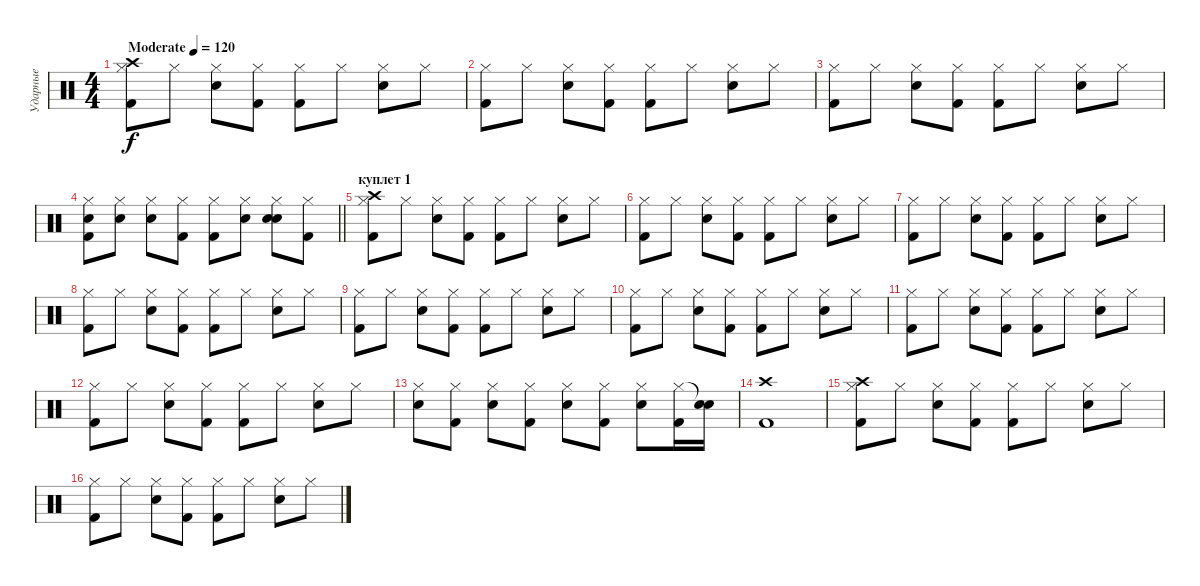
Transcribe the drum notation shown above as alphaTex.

\track ("Ударные" "Ударные") {instrument percussion}
\staff
\articulation defaults
\ts (4 4)
\tempo (120 "Moderate")
\clef neutral
\ks c
("Crash high (hit)" "Hi-Hat (closed)" "Kick (hit) 2").8{dy f} "Hi-Hat (closed)".8 ("Hi-Hat (closed)" "Snare (hit) 2").8 ("Hi-Hat (closed)" "Kick (hit) 2").8 ("Hi-Hat (closed)" "Kick (hit) 2").8 "Hi-Hat (closed)".8 ("Hi-Hat (closed)" "Snare (hit) 2").8 "Hi-Hat (closed)".8 |
("Hi-Hat (closed)" "Kick (hit) 2").8 "Hi-Hat (closed)".8 ("Hi-Hat (closed)" "Snare (hit) 2").8 ("Hi-Hat (closed)" "Kick (hit) 2").8 ("Hi-Hat (closed)" "Kick (hit) 2").8 "Hi-Hat (closed)".8 ("Hi-Hat (closed)" "Snare (hit) 2").8 "Hi-Hat (closed)".8 |
("Hi-Hat (closed)" "Kick (hit) 2").8 "Hi-Hat (closed)".8 ("Hi-Hat (closed)" "Snare (hit) 2").8 ("Hi-Hat (closed)" "Kick (hit) 2").8 ("Hi-Hat (closed)" "Kick (hit) 2").8 "Hi-Hat (closed)".8 ("Hi-Hat (closed)" "Snare (hit) 2").8 "Hi-Hat (closed)".8 |
\barLineRight lightlight
("Electric Snare (hit)" "Hi-Hat (closed)" "Kick (hit) 2").8 ("Electric Snare (hit)" "Hi-Hat (closed)").8 ("Hi-Hat (closed)" "Snare (hit) 2").8 ("Hi-Hat (closed)" "Kick (hit) 2").8 ("Hi-Hat (closed)" "Kick (hit) 2").8 ("Electric Snare (hit)" "Hi-Hat (closed)").8 ("Electric Snare (hit)" "Hi-Hat (closed)" "Snare (hit) 2").8 ("Hi-Hat (closed)" "Kick (hit) 2").8 |
\section ("" "куплет 1")
("Crash high (hit)" "Hi-Hat (closed)" "Kick (hit) 2").8 "Hi-Hat (closed)".8 ("Hi-Hat (closed)" "Snare (hit) 2").8 ("Hi-Hat (closed)" "Kick (hit) 2").8 ("Hi-Hat (closed)" "Kick (hit) 2").8 "Hi-Hat (closed)".8 ("Hi-Hat (closed)" "Snare (hit) 2").8 "Hi-Hat (closed)".8 |
("Hi-Hat (closed)" "Kick (hit) 2").8 "Hi-Hat (closed)".8 ("Hi-Hat (closed)" "Snare (hit) 2").8 ("Hi-Hat (closed)" "Kick (hit) 2").8 ("Hi-Hat (closed)" "Kick (hit) 2").8 "Hi-Hat (closed)".8 ("Hi-Hat (closed)" "Snare (hit) 2").8 "Hi-Hat (closed)".8 |
("Hi-Hat (closed)" "Kick (hit) 2").8 "Hi-Hat (closed)".8 ("Hi-Hat (closed)" "Snare (hit) 2").8 ("Hi-Hat (closed)" "Kick (hit) 2").8 ("Hi-Hat (closed)" "Kick (hit) 2").8 "Hi-Hat (closed)".8 ("Hi-Hat (closed)" "Snare (hit) 2").8 "Hi-Hat (closed)".8 |
("Hi-Hat (closed)" "Kick (hit) 2").8 "Hi-Hat (closed)".8 ("Hi-Hat (closed)" "Snare (hit) 2").8 ("Hi-Hat (closed)" "Kick (hit) 2").8 ("Hi-Hat (closed)" "Kick (hit) 2").8 "Hi-Hat (closed)".8 ("Hi-Hat (closed)" "Snare (hit) 2").8 "Hi-Hat (closed)".8 |
("Hi-Hat (closed)" "Kick (hit) 2").8 "Hi-Hat (closed)".8 ("Hi-Hat (closed)" "Snare (hit) 2").8 ("Hi-Hat (closed)" "Kick (hit) 2").8 ("Hi-Hat (closed)" "Kick (hit) 2").8 "Hi-Hat (closed)".8 ("Hi-Hat (closed)" "Snare (hit) 2").8 "Hi-Hat (closed)".8 |
("Hi-Hat (closed)" "Kick (hit) 2").8 "Hi-Hat (closed)".8 ("Hi-Hat (closed)" "Snare (hit) 2").8 ("Hi-Hat (closed)" "Kick (hit) 2").8 ("Hi-Hat (closed)" "Kick (hit) 2").8 "Hi-Hat (closed)".8 ("Hi-Hat (closed)" "Snare (hit) 2").8 "Hi-Hat (closed)".8 |
("Hi-Hat (closed)" "Kick (hit) 2").8 "Hi-Hat (closed)".8 ("Hi-Hat (closed)" "Snare (hit) 2").8 ("Hi-Hat (closed)" "Kick (hit) 2").8 ("Hi-Hat (closed)" "Kick (hit) 2").8 "Hi-Hat (closed)".8 ("Hi-Hat (closed)" "Snare (hit) 2").8 "Hi-Hat (closed)".8 |
("Hi-Hat (closed)" "Kick (hit) 2").8 "Hi-Hat (closed)".8 ("Hi-Hat (closed)" "Snare (hit) 2").8 ("Hi-Hat (closed)" "Kick (hit) 2").8 ("Hi-Hat (closed)" "Kick (hit) 2").8 "Hi-Hat (closed)".8 ("Hi-Hat (closed)" "Snare (hit) 2").8 "Hi-Hat (closed)".8 |
("Hi-Hat (closed)" "Snare (hit) 2").8 ("Hi-Hat (closed)" "Kick (hit) 2").8 ("Hi-Hat (closed)" "Snare (hit) 2").8 ("Hi-Hat (closed)" "Kick (hit) 2").8 ("Hi-Hat (closed)" "Snare (hit) 2").8 ("Hi-Hat (closed)" "Kick (hit) 2").8 ("Hi-Hat (closed)" "Snare (hit) 2").8 ("Hi-Hat (closed)" "Kick (hit) 2").16 ("Snare (hit)"{t} "Snare (hit) 2").16 |
("Crash high (hit)" "Kick (hit) 2").1 |
("Crash high (hit)" "Hi-Hat (closed)" "Kick (hit) 2").8 "Hi-Hat (closed)".8 ("Hi-Hat (closed)" "Snare (hit) 2").8 ("Hi-Hat (closed)" "Kick (hit) 2").8 ("Hi-Hat (closed)" "Kick (hit) 2").8 "Hi-Hat (closed)".8 ("Hi-Hat (closed)" "Snare (hit) 2").8 "Hi-Hat (closed)".8 |
("Hi-Hat (closed)" "Kick (hit) 2").8 "Hi-Hat (closed)".8 ("Hi-Hat (closed)" "Snare (hit) 2").8 ("Hi-Hat (closed)" "Kick (hit) 2").8 ("Hi-Hat (closed)" "Kick (hit) 2").8 "Hi-Hat (closed)".8 ("Hi-Hat (closed)" "Snare (hit) 2").8 "Hi-Hat (closed)".8
